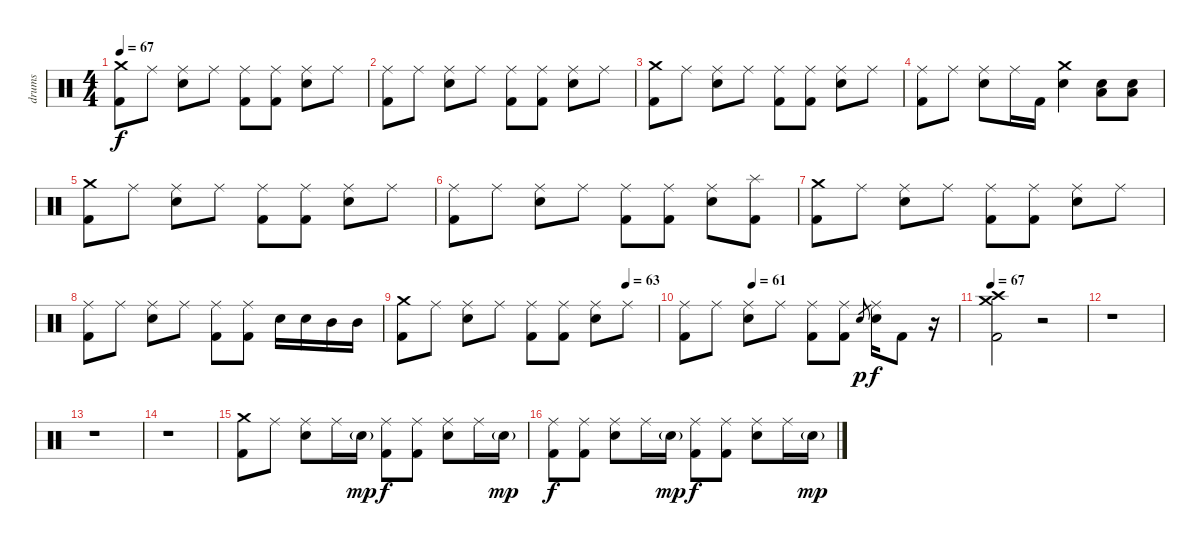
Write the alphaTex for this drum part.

\track ("drums" "drums") {instrument percussion}
\staff {score}
\articulation defaults
\ts (4 4)
\tempo 67
\clef neutral
\ks c
("Crash medium (hit)" "Kick (hit) 2").8{dy f} "Ride (middle)".8 ("Ride (middle)" "Snare (hit) 2").8 "Ride (middle)".8 ("Ride (middle)" "Kick (hit) 2").8 ("Ride (middle)" "Kick (hit) 2").8 ("Ride (middle)" "Snare (hit) 2").8 "Ride (middle)".8 |
("Ride (middle)" "Kick (hit) 2").8 "Ride (middle)".8 ("Ride (middle)" "Snare (hit) 2").8 "Ride (middle)".8 ("Ride (middle)" "Kick (hit) 2").8 ("Ride (middle)" "Kick (hit) 2").8 ("Ride (middle)" "Snare (hit) 2").8 "Ride (middle)".8 |
("Crash medium (hit)" "Kick (hit) 2").8 "Ride (middle)".8 ("Ride (middle)" "Snare (hit) 2").8 "Ride (middle)".8 ("Ride (middle)" "Kick (hit) 2").8 ("Ride (middle)" "Kick (hit) 2").8 ("Ride (middle)" "Snare (hit) 2").8 "Ride (middle)".8 |
("Ride (middle)" "Kick (hit) 2").8 "Ride (middle)".8 ("Ride (middle)" "Snare (hit) 2").8 "Ride (middle)".16 "Kick (hit) 2".16 ("Crash medium (hit)" "Snare (hit) 2").4 ("Snare (hit) 2" "Low Tom (hit)").8 ("Snare (hit) 2" "Low Tom (hit)").8 |
("Crash medium (hit)" "Kick (hit) 2").8 "Ride (middle)".8 ("Ride (middle)" "Snare (hit) 2").8 "Ride (middle)".8 ("Ride (middle)" "Kick (hit) 2").8 ("Ride (middle)" "Kick (hit) 2").8 ("Ride (middle)" "Snare (hit) 2").8 "Ride (middle)".8 |
("Ride (middle)" "Kick (hit) 2").8 "Ride (middle)".8 ("Ride (middle)" "Snare (hit) 2").8 "Ride (middle)".8 ("Ride (middle)" "Kick (hit) 2").8 ("Ride (middle)" "Kick (hit) 2").8 ("Ride (middle)" "Snare (hit) 2").8 ("Splash (hit)" "Kick (hit) 2").8 |
("Crash medium (hit)" "Kick (hit) 2").8{balance 5} "Ride (middle)".8 ("Ride (middle)" "Snare (hit) 2").8 "Ride (middle)".8 ("Ride (middle)" "Kick (hit) 2").8 ("Ride (middle)" "Kick (hit) 2").8 ("Ride (middle)" "Snare (hit) 2").8 "Ride (middle)".8 |
("Ride (middle)" "Kick (hit) 2").8 "Ride (middle)".8 ("Ride (middle)" "Snare (hit) 2").8 "Ride (middle)".8 ("Ride (middle)" "Kick (hit) 2").8 ("Ride (middle)" "Kick (hit) 2").8 "Snare (hit) 2".16 "Snare (hit) 2".16 "Mid Tom (hit)".16 "Mid Tom (hit)".16 |
\tempo (63 0.875)
("Crash medium (hit)" "Kick (hit) 2").8 "Ride (middle)".8 ("Ride (middle)" "Snare (hit) 2").8 "Ride (middle)".8 ("Ride (middle)" "Kick (hit) 2").8 ("Ride (middle)" "Kick (hit) 2").8 ("Ride (middle)" "Snare (hit) 2").8 "Ride (middle)".8 |
\tempo (61 0.25)
("Ride (middle)" "Kick (hit) 2").8 "Ride (middle)".8 ("Ride (middle)" "Snare (hit) 2").8 "Ride (middle)".8 ("Ride (middle)" "Kick (hit) 2").8 ("Ride (middle)" "Kick (hit) 2").8 "Snare (hit) 2".8{gr dy p} ("Ride (middle)" "Snare (hit) 2").16{dy f} "Kick (hit) 2".8 r.16 |
\tempo 67
("Crash medium (hit)" "Crash high (hit)" "Kick (hit) 2").2 r.2 |
r.1 |
r.1 |
r.1 |
("Crash medium (hit)" "Kick (hit) 2").8{balance 11} "Ride (middle)".8 ("Ride (middle)" "Snare (hit) 2").8 "Ride (middle)".16 "Snare (hit) 2"{g}.16{dy mp} ("Ride (middle)" "Kick (hit) 2").8{dy f} ("Ride (middle)" "Kick (hit) 2").8 ("Ride (middle)" "Snare (hit) 2").8 "Ride (middle)".16 "Snare (hit) 2"{g}.16{dy mp} |
("Ride (middle)" "Kick (hit) 2").8{dy f} ("Ride (middle)" "Kick (hit) 2").8 ("Ride (middle)" "Snare (hit) 2").8 "Ride (middle)".16 "Snare (hit) 2"{g}.16{dy mp} ("Ride (middle)" "Kick (hit) 2").8{dy f} ("Ride (middle)" "Kick (hit) 2").8 ("Ride (middle)" "Snare (hit) 2").8 "Ride (middle)".16 "Snare (hit) 2"{g}.16{dy mp}
